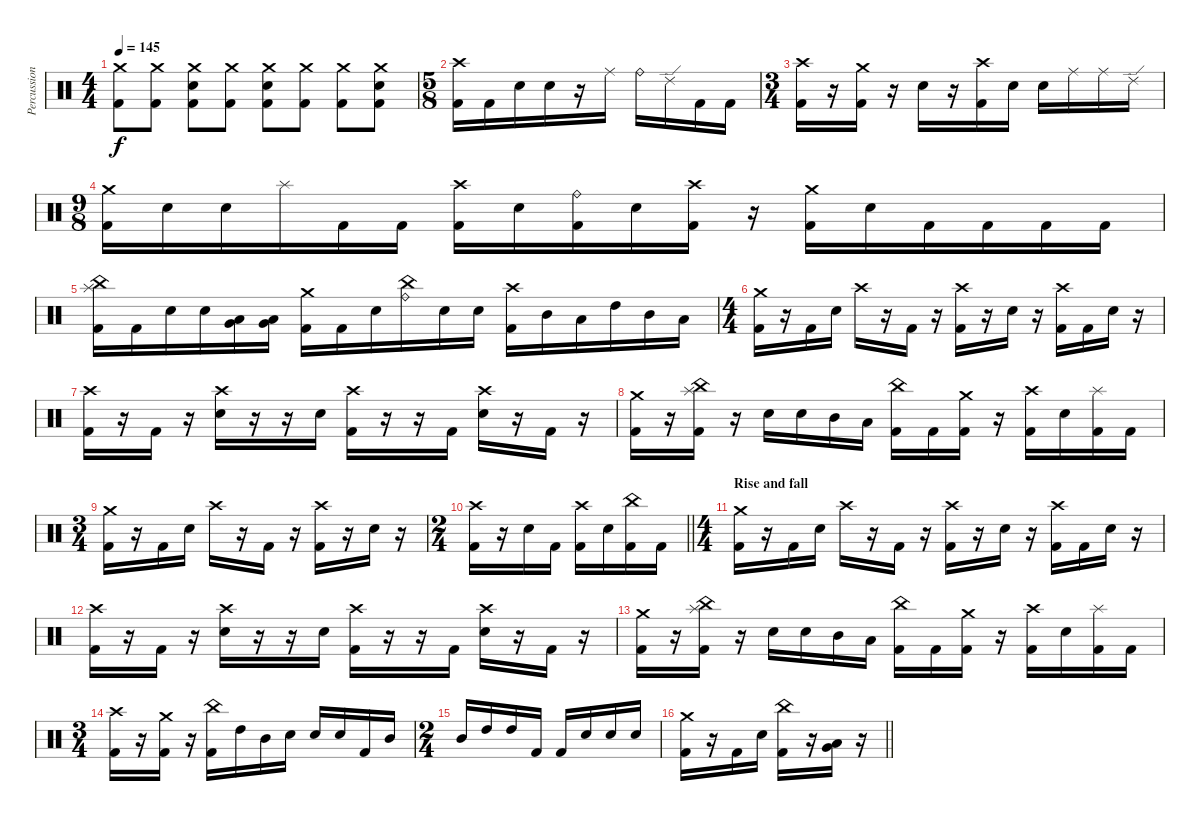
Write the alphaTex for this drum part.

\track ("Percussion" "Percussion") {instrument percussion}
\staff {score}
\articulation defaults
\ts (4 4)
\tempo 145
\clef neutral
\ks c
("Crash medium (hit)" "Kick (hit) 2").8{dy f} ("Crash medium (hit)" "Kick (hit) 2").8 ("Crash medium (hit)" "Electric Snare (hit)" "Kick (hit) 2").8 ("Crash medium (hit)" "Kick (hit) 2").8 ("Crash medium (hit)" "Electric Snare (hit)" "Kick (hit) 2").8 ("Crash medium (hit)" "Kick (hit) 2").8 ("Crash medium (hit)" "Kick (hit) 2").8 ("Crash medium (hit)" "Electric Snare (hit)" "Kick (hit) 2").8 |
\ts (5 8)
("Crash high (hit)" "Kick (hit) 2").16 "Kick (hit) 2".16 "Electric Snare (hit)".16 "Electric Snare (hit)".16 r.16 "Ride (middle)".16 "Ride (bell)".16 "Ride (edge) 2".16 "Kick (hit) 2".16 "Kick (hit) 2".16 |
\ts (3 4)
("Crash high (hit)" "Kick (hit) 2").16 r.16 ("Crash medium (hit)" "Kick (hit) 2").16 r.16 "Electric Snare (hit)".16 r.16 ("Crash high (hit)" "Kick (hit) 2").16 "Electric Snare (hit)".16 "Electric Snare (hit)".16 "Ride (middle)".16 "Ride (middle)".16 "Ride (edge) 2".16 |
\ts (9 8)
("Crash medium (hit)" "Kick (hit) 2").16 "Electric Snare (hit)".16 "Electric Snare (hit)".16 "Splash (hit)".16 "Kick (hit) 2".16 "Kick (hit) 2".16 ("Crash high (hit)" "Kick (hit) 2").16 "Electric Snare (hit)".16 ("Ride (bell)" "Kick (hit) 2").16 "Electric Snare (hit)".16 ("Crash high (hit)" "Kick (hit) 2").16 r.16 ("Crash medium (hit)" "Kick (hit) 2").16 "Electric Snare (hit)".16 "Kick (hit) 2".16 "Kick (hit) 2".16 "Kick (hit) 2".16 "Kick (hit) 2".16 |
("Splash (hit)" "China (hit)" "Kick (hit) 2").16 "Kick (hit) 2".16 "Electric Snare (hit)".16 "Electric Snare (hit)".16 ("Very Low Tom (hit)" "Low Tom (hit)").16 ("Very Low Tom (hit)" "Low Tom (hit)").16 ("Crash medium (hit)" "Kick (hit) 2").16 "Kick (hit) 2".16 "Electric Snare (hit)".16 ("Ride (bell)" "China (hit)").16 "Electric Snare (hit)".16 "Electric Snare (hit)".16 ("Crash high (hit)" "Kick (hit) 2").16 "Mid Tom (hit)".16 "Low Tom (hit)".16 "High Tom (hit)".16 "Mid Tom (hit)".16 "Low Tom (hit)".16 |
\ts (4 4)
("Crash medium (hit)" "Kick (hit) 2").16 r.16 "Kick (hit) 2".16 "Electric Snare (hit)".16 "Crash high (hit)".16 r.16 "Kick (hit) 2".16 r.16 ("Crash high (hit)" "Kick (hit) 2").16 r.16 "Electric Snare (hit)".16 r.16 ("Crash high (hit)" "Kick (hit) 2").16 "Kick (hit) 2".16 "Electric Snare (hit)".16 r.16 |
("Crash high (hit)" "Kick (hit) 2").16 r.16 "Kick (hit) 2".16 r.16 ("Crash high (hit)" "Electric Snare (hit)").16 r.16 r.16 "Electric Snare (hit)".16 ("Crash high (hit)" "Kick (hit) 2").16 r.16 r.16 "Kick (hit) 2".16 ("Crash high (hit)" "Electric Snare (hit)").16 r.16 "Kick (hit) 2".16 r.16 |
("Crash medium (hit)" "Kick (hit) 2").16 r.16 ("China (hit)" "Splash (hit)" "Kick (hit) 2").16 r.16 "Electric Snare (hit)".16 "Electric Snare (hit)".16 "Mid Tom (hit)".16 "Low Tom (hit)".16 ("China (hit)" "Kick (hit) 2").16 "Kick (hit) 2".16 ("Crash medium (hit)" "Kick (hit) 2").16 r.16 ("Crash high (hit)" "Kick (hit) 2").16 "Electric Snare (hit)".16 ("Splash (hit)" "Kick (hit) 2").16 "Kick (hit) 2".16 |
\ts (3 4)
("Crash medium (hit)" "Kick (hit) 2").16 r.16 "Kick (hit) 2".16 "Electric Snare (hit)".16 "Crash high (hit)".16 r.16 "Kick (hit) 2".16 r.16 ("Crash high (hit)" "Kick (hit) 2").16 r.16 "Electric Snare (hit)".16 r.16 |
\ts (2 4)
\barLineRight lightlight
("Crash high (hit)" "Kick (hit) 2").16 r.16 "Electric Snare (hit)".16 "Kick (hit) 2".16 ("Crash high (hit)" "Kick (hit) 2").16 "Electric Snare (hit)".16 ("China (hit)" "Kick (hit) 2").16 "Kick (hit) 2".16 |
\ts (4 4)
\section ("" "Rise and fall")
("Crash medium (hit)" "Kick (hit) 2").16 r.16 "Kick (hit) 2".16 "Electric Snare (hit)".16 "Crash high (hit)".16 r.16 "Kick (hit) 2".16 r.16 ("Crash high (hit)" "Kick (hit) 2").16 r.16 "Electric Snare (hit)".16 r.16 ("Crash high (hit)" "Kick (hit) 2").16 "Kick (hit) 2".16 "Electric Snare (hit)".16 r.16 |
("Crash high (hit)" "Kick (hit) 2").16 r.16 "Kick (hit) 2".16 r.16 ("Crash high (hit)" "Electric Snare (hit)").16 r.16 r.16 "Electric Snare (hit)".16 ("Crash high (hit)" "Kick (hit) 2").16 r.16 r.16 "Kick (hit) 2".16 ("Crash high (hit)" "Electric Snare (hit)").16 r.16 "Kick (hit) 2".16 r.16 |
("Crash medium (hit)" "Kick (hit) 2").16 r.16 ("China (hit)" "Splash (hit)" "Kick (hit) 2").16 r.16 "Electric Snare (hit)".16 "Electric Snare (hit)".16 "Mid Tom (hit)".16 "Low Tom (hit)".16 ("China (hit)" "Kick (hit) 2").16 "Kick (hit) 2".16 ("Crash medium (hit)" "Kick (hit) 2").16 r.16 ("Crash high (hit)" "Kick (hit) 2").16 "Electric Snare (hit)".16 ("Splash (hit)" "Kick (hit) 2").16 "Kick (hit) 2".16 |
\ts (3 4)
("Crash high (hit)" "Kick (hit) 2").16 r.16 ("Crash medium (hit)" "Kick (hit) 2").16 r.16 ("China (hit)" "Kick (hit) 2").16 "High Tom (hit)".16 "Mid Tom (hit)".16 "Electric Snare (hit)".16 "Electric Snare (hit)".16 "Electric Snare (hit)".16 "Kick (hit) 2".16 "Mid Tom (hit)".16 |
\ts (2 4)
"Mid Tom (hit)".16 "High Tom (hit)".16 "High Tom (hit)".16 "Kick (hit) 2".16 "Kick (hit) 2".16 "Electric Snare (hit)".16 "Electric Snare (hit)".16 "Electric Snare (hit)".16 |
\barLineRight lightlight
("Crash medium (hit)" "Kick (hit) 2").16 r.16 "Kick (hit) 2".16 "Electric Snare (hit)".16 ("China (hit)" "Kick (hit) 2").16 r.16 ("Low Tom (hit)" "Very Low Tom (hit)").16 r.16
